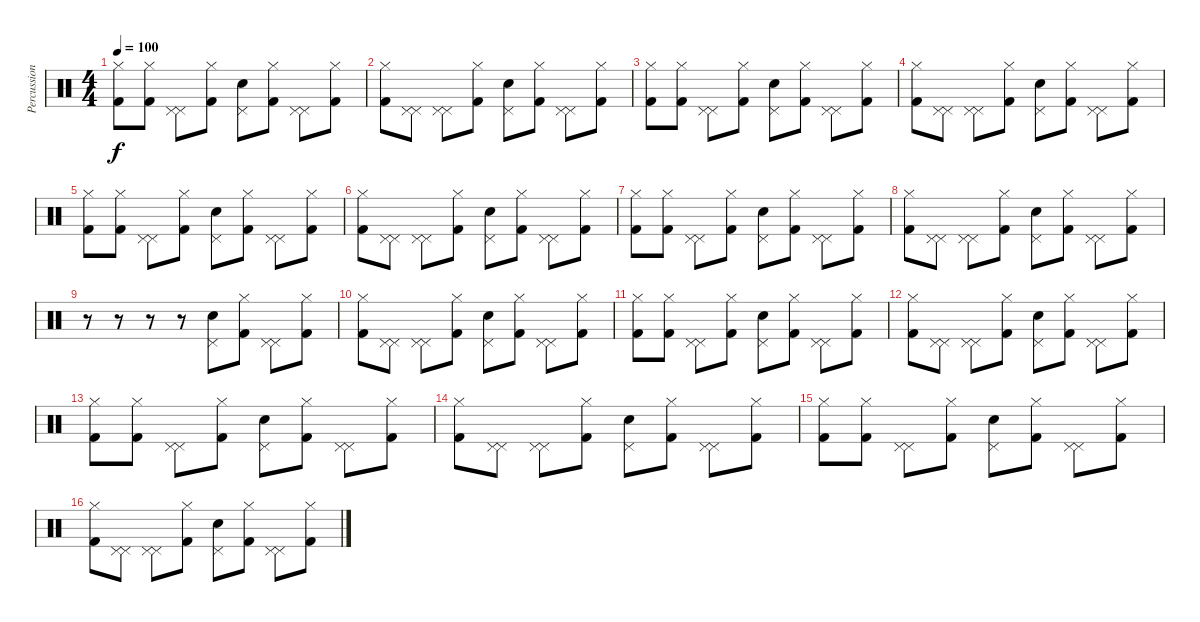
\track ("Percussion" "Percussion") {instrument percussion}
\staff {score}
\articulation defaults
\ts (4 4)
\tempo 100
\clef neutral
\ks c
("Hi-Hat (closed)" "Kick (hit) 2").8{dy f volume 16} ("Hi-Hat (closed)" "Kick (hit) 2").8 ("Pedal Hi-Hat (hit)" "Pedal Hi-Hat (hit)").8 ("Hi-Hat (closed)" "Kick (hit) 2").8 ("Snare (hit) 2" "Pedal Hi-Hat (hit)").8 ("Hi-Hat (closed)" "Kick (hit) 2").8 ("Pedal Hi-Hat (hit)" "Pedal Hi-Hat (hit)").8 ("Hi-Hat (closed)" "Kick (hit) 2").8 |
("Hi-Hat (closed)" "Kick (hit) 2").8 ("Pedal Hi-Hat (hit)" "Pedal Hi-Hat (hit)").8 ("Pedal Hi-Hat (hit)" "Pedal Hi-Hat (hit)").8 ("Hi-Hat (closed)" "Kick (hit) 2").8 ("Snare (hit) 2" "Pedal Hi-Hat (hit)").8 ("Hi-Hat (closed)" "Kick (hit) 2").8 ("Pedal Hi-Hat (hit)" "Pedal Hi-Hat (hit)").8 ("Hi-Hat (closed)" "Kick (hit) 2").8 |
("Hi-Hat (closed)" "Kick (hit) 2").8 ("Hi-Hat (closed)" "Kick (hit) 2").8 ("Pedal Hi-Hat (hit)" "Pedal Hi-Hat (hit)").8 ("Hi-Hat (closed)" "Kick (hit) 2").8 ("Snare (hit) 2" "Pedal Hi-Hat (hit)").8 ("Hi-Hat (closed)" "Kick (hit) 2").8 ("Pedal Hi-Hat (hit)" "Pedal Hi-Hat (hit)").8 ("Hi-Hat (closed)" "Kick (hit) 2").8 |
("Hi-Hat (closed)" "Kick (hit) 2").8 ("Pedal Hi-Hat (hit)" "Pedal Hi-Hat (hit)").8 ("Pedal Hi-Hat (hit)" "Pedal Hi-Hat (hit)").8 ("Hi-Hat (closed)" "Kick (hit) 2").8 ("Snare (hit) 2" "Pedal Hi-Hat (hit)").8 ("Hi-Hat (closed)" "Kick (hit) 2").8 ("Pedal Hi-Hat (hit)" "Pedal Hi-Hat (hit)").8 ("Hi-Hat (closed)" "Kick (hit) 2").8 |
("Hi-Hat (closed)" "Kick (hit) 2").8 ("Hi-Hat (closed)" "Kick (hit) 2").8 ("Pedal Hi-Hat (hit)" "Pedal Hi-Hat (hit)").8 ("Hi-Hat (closed)" "Kick (hit) 2").8 ("Snare (hit) 2" "Pedal Hi-Hat (hit)").8 ("Hi-Hat (closed)" "Kick (hit) 2").8 ("Pedal Hi-Hat (hit)" "Pedal Hi-Hat (hit)").8 ("Hi-Hat (closed)" "Kick (hit) 2").8 |
("Hi-Hat (closed)" "Kick (hit) 2").8 ("Pedal Hi-Hat (hit)" "Pedal Hi-Hat (hit)").8 ("Pedal Hi-Hat (hit)" "Pedal Hi-Hat (hit)").8 ("Hi-Hat (closed)" "Kick (hit) 2").8 ("Snare (hit) 2" "Pedal Hi-Hat (hit)").8 ("Hi-Hat (closed)" "Kick (hit) 2").8 ("Pedal Hi-Hat (hit)" "Pedal Hi-Hat (hit)").8 ("Hi-Hat (closed)" "Kick (hit) 2").8 |
("Hi-Hat (closed)" "Kick (hit) 2").8 ("Hi-Hat (closed)" "Kick (hit) 2").8 ("Pedal Hi-Hat (hit)" "Pedal Hi-Hat (hit)").8 ("Hi-Hat (closed)" "Kick (hit) 2").8 ("Snare (hit) 2" "Pedal Hi-Hat (hit)").8 ("Hi-Hat (closed)" "Kick (hit) 2").8 ("Pedal Hi-Hat (hit)" "Pedal Hi-Hat (hit)").8 ("Hi-Hat (closed)" "Kick (hit) 2").8 |
("Hi-Hat (closed)" "Kick (hit) 2").8 ("Pedal Hi-Hat (hit)" "Pedal Hi-Hat (hit)").8 ("Pedal Hi-Hat (hit)" "Pedal Hi-Hat (hit)").8 ("Hi-Hat (closed)" "Kick (hit) 2").8 ("Snare (hit) 2" "Pedal Hi-Hat (hit)").8 ("Hi-Hat (closed)" "Kick (hit) 2").8 ("Pedal Hi-Hat (hit)" "Pedal Hi-Hat (hit)").8 ("Hi-Hat (closed)" "Kick (hit) 2").8 |
r.8 r.8 r.8 r.8 ("Snare (hit) 2" "Pedal Hi-Hat (hit)").8 ("Hi-Hat (closed)" "Kick (hit) 2").8 ("Pedal Hi-Hat (hit)" "Pedal Hi-Hat (hit)").8 ("Hi-Hat (closed)" "Kick (hit) 2").8 |
("Hi-Hat (closed)" "Kick (hit) 2").8 ("Pedal Hi-Hat (hit)" "Pedal Hi-Hat (hit)").8 ("Pedal Hi-Hat (hit)" "Pedal Hi-Hat (hit)").8 ("Hi-Hat (closed)" "Kick (hit) 2").8 ("Snare (hit) 2" "Pedal Hi-Hat (hit)").8 ("Hi-Hat (closed)" "Kick (hit) 2").8 ("Pedal Hi-Hat (hit)" "Pedal Hi-Hat (hit)").8 ("Hi-Hat (closed)" "Kick (hit) 2").8 |
("Hi-Hat (closed)" "Kick (hit) 2").8 ("Hi-Hat (closed)" "Kick (hit) 2").8 ("Pedal Hi-Hat (hit)" "Pedal Hi-Hat (hit)").8 ("Hi-Hat (closed)" "Kick (hit) 2").8 ("Snare (hit) 2" "Pedal Hi-Hat (hit)").8 ("Hi-Hat (closed)" "Kick (hit) 2").8 ("Pedal Hi-Hat (hit)" "Pedal Hi-Hat (hit)").8 ("Hi-Hat (closed)" "Kick (hit) 2").8 |
("Hi-Hat (closed)" "Kick (hit) 2").8 ("Pedal Hi-Hat (hit)" "Pedal Hi-Hat (hit)").8 ("Pedal Hi-Hat (hit)" "Pedal Hi-Hat (hit)").8 ("Hi-Hat (closed)" "Kick (hit) 2").8 ("Snare (hit) 2" "Pedal Hi-Hat (hit)").8 ("Hi-Hat (closed)" "Kick (hit) 2").8 ("Pedal Hi-Hat (hit)" "Pedal Hi-Hat (hit)").8 ("Hi-Hat (closed)" "Kick (hit) 2").8 |
("Hi-Hat (closed)" "Kick (hit) 2").8 ("Hi-Hat (closed)" "Kick (hit) 2").8 ("Pedal Hi-Hat (hit)" "Pedal Hi-Hat (hit)").8 ("Hi-Hat (closed)" "Kick (hit) 2").8 ("Snare (hit) 2" "Pedal Hi-Hat (hit)").8 ("Hi-Hat (closed)" "Kick (hit) 2").8 ("Pedal Hi-Hat (hit)" "Pedal Hi-Hat (hit)").8 ("Hi-Hat (closed)" "Kick (hit) 2").8 |
("Hi-Hat (closed)" "Kick (hit) 2").8 ("Pedal Hi-Hat (hit)" "Pedal Hi-Hat (hit)").8 ("Pedal Hi-Hat (hit)" "Pedal Hi-Hat (hit)").8 ("Hi-Hat (closed)" "Kick (hit) 2").8 ("Snare (hit) 2" "Pedal Hi-Hat (hit)").8 ("Hi-Hat (closed)" "Kick (hit) 2").8 ("Pedal Hi-Hat (hit)" "Pedal Hi-Hat (hit)").8 ("Hi-Hat (closed)" "Kick (hit) 2").8 |
("Hi-Hat (closed)" "Kick (hit) 2").8 ("Hi-Hat (closed)" "Kick (hit) 2").8 ("Pedal Hi-Hat (hit)" "Pedal Hi-Hat (hit)").8 ("Hi-Hat (closed)" "Kick (hit) 2").8 ("Snare (hit) 2" "Pedal Hi-Hat (hit)").8 ("Hi-Hat (closed)" "Kick (hit) 2").8 ("Pedal Hi-Hat (hit)" "Pedal Hi-Hat (hit)").8 ("Hi-Hat (closed)" "Kick (hit) 2").8 |
("Hi-Hat (closed)" "Kick (hit) 2").8 ("Pedal Hi-Hat (hit)" "Pedal Hi-Hat (hit)").8 ("Pedal Hi-Hat (hit)" "Pedal Hi-Hat (hit)").8 ("Hi-Hat (closed)" "Kick (hit) 2").8 ("Snare (hit) 2" "Pedal Hi-Hat (hit)").8 ("Hi-Hat (closed)" "Kick (hit) 2").8 ("Pedal Hi-Hat (hit)" "Pedal Hi-Hat (hit)").8 ("Hi-Hat (closed)" "Kick (hit) 2").8
